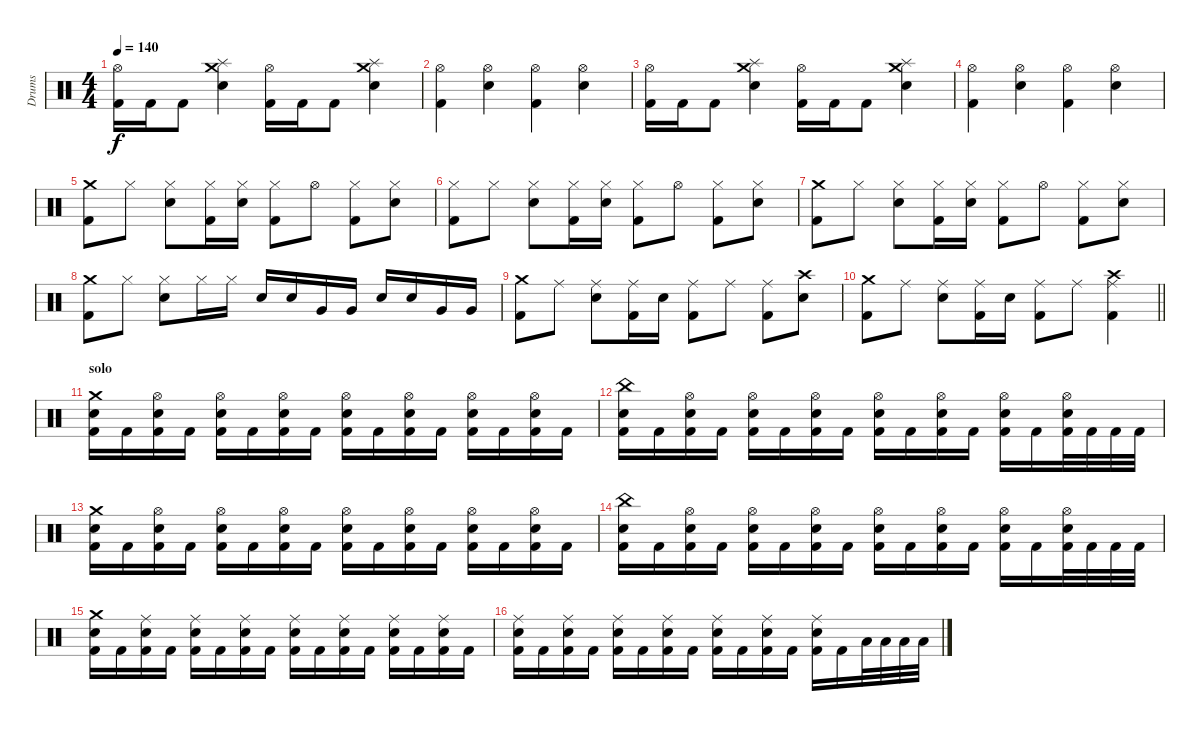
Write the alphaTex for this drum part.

\track ("Drums" "Drums") {instrument percussion}
\staff {score}
\articulation defaults
\ts (4 4)
\tempo 140
\clef neutral
\ks c
("Hi-Hat (open)" "Kick (hit) 2").16{dy f} "Kick (hit) 2".16 "Kick (hit) 2".8 ("Crash medium (hit)" "Splash (hit)" "Snare (hit) 2").4 ("Hi-Hat (open)" "Kick (hit) 2").16 "Kick (hit) 2".16 "Kick (hit) 2".8 ("Crash medium (hit)" "Splash (hit)" "Snare (hit) 2").4 |
("Hi-Hat (open)" "Kick (hit) 2").4 ("Hi-Hat (open)" "Snare (hit) 2").4 ("Hi-Hat (open)" "Kick (hit) 2").4 ("Hi-Hat (open)" "Snare (hit) 2").4 |
("Hi-Hat (open)" "Kick (hit) 2").16 "Kick (hit) 2".16 "Kick (hit) 2".8 ("Crash medium (hit)" "Splash (hit)" "Snare (hit) 2").4 ("Hi-Hat (open)" "Kick (hit) 2").16 "Kick (hit) 2".16 "Kick (hit) 2".8 ("Crash medium (hit)" "Splash (hit)" "Snare (hit) 2").4 |
("Hi-Hat (open)" "Kick (hit) 2").4 ("Hi-Hat (open)" "Snare (hit) 2").4 ("Hi-Hat (open)" "Kick (hit) 2").4 ("Hi-Hat (open)" "Snare (hit) 2").4 |
("Crash medium (hit)" "Kick (hit) 2").8 "Hi-Hat (closed)".8 ("Hi-Hat (closed)" "Snare (hit) 2").8 ("Hi-Hat (closed)" "Kick (hit) 2").16 ("Hi-Hat (closed)" "Snare (hit) 2").16 ("Hi-Hat (closed)" "Kick (hit) 2").8 "Hi-Hat (open)".8 ("Hi-Hat (closed)" "Kick (hit) 2").8 ("Hi-Hat (closed)" "Snare (hit) 2").8 |
("Hi-Hat (closed)" "Kick (hit) 2").8 "Hi-Hat (closed)".8 ("Hi-Hat (closed)" "Snare (hit) 2").8 ("Hi-Hat (closed)" "Kick (hit) 2").16 ("Hi-Hat (closed)" "Snare (hit) 2").16 ("Hi-Hat (closed)" "Kick (hit) 2").8 "Hi-Hat (open)".8 ("Hi-Hat (closed)" "Kick (hit) 2").8 ("Hi-Hat (closed)" "Snare (hit) 2").8 |
("Crash medium (hit)" "Kick (hit) 2").8 "Hi-Hat (closed)".8 ("Hi-Hat (closed)" "Snare (hit) 2").8 ("Hi-Hat (closed)" "Kick (hit) 2").16 ("Hi-Hat (closed)" "Snare (hit) 2").16 ("Hi-Hat (closed)" "Kick (hit) 2").8 "Hi-Hat (open)".8 ("Hi-Hat (closed)" "Kick (hit) 2").8 ("Hi-Hat (closed)" "Snare (hit) 2").8 |
("Crash medium (hit)" "Kick (hit) 2").8 "Hi-Hat (closed)".8 ("Hi-Hat (closed)" "Snare (hit) 2").8 "Hi-Hat (closed)".16 "Hi-Hat (closed)".16 "Snare (hit) 2".16 "Snare (hit) 2".16 "Very Low Tom (hit)".16 "Very Low Tom (hit)".16 "Snare (hit) 2".16 "Snare (hit) 2".16 "Very Low Tom (hit)".16 "Very Low Tom (hit)".16 |
("Crash medium (hit)" "Kick (hit) 2").8 "Ride (middle)".8 ("Ride (middle)" "Snare (hit) 2").8 ("Ride (middle)" "Kick (hit) 2").16 "Snare (hit) 2".16 ("Ride (middle)" "Kick (hit) 2").8 "Ride (middle)".8 ("Ride (middle)" "Kick (hit) 2").8 ("Crash high (hit)" "Snare (hit) 2").8 |
\barLineRight lightlight
("Crash medium (hit)" "Kick (hit) 2").8 "Ride (middle)".8 ("Ride (middle)" "Snare (hit) 2").8 ("Ride (middle)" "Kick (hit) 2").16 "Snare (hit) 2".16 ("Ride (middle)" "Kick (hit) 2").8 "Ride (middle)".8 ("Crash high (hit)" "Ride (middle)" "Kick (hit) 2").4 |
\section ("" "solo")
("Crash medium (hit)" "Snare (hit) 2" "Kick (hit) 2").16 "Kick (hit) 2".16 ("Hi-Hat (open)" "Snare (hit) 2" "Kick (hit) 2").16 "Kick (hit) 2".16 ("Hi-Hat (open)" "Snare (hit) 2" "Kick (hit) 2").16 "Kick (hit) 2".16 ("Hi-Hat (open)" "Snare (hit) 2" "Kick (hit) 2").16 "Kick (hit) 2".16 ("Hi-Hat (open)" "Snare (hit) 2" "Kick (hit) 2").16 "Kick (hit) 2".16 ("Hi-Hat (open)" "Snare (hit) 2" "Kick (hit) 2").16 "Kick (hit) 2".16 ("Hi-Hat (open)" "Snare (hit) 2" "Kick (hit) 2").16 "Kick (hit) 2".16 ("Hi-Hat (open)" "Snare (hit) 2" "Kick (hit) 2").16 "Kick (hit) 2".16 |
("China (hit)" "Snare (hit) 2" "Kick (hit) 2").16 "Kick (hit) 2".16 ("Hi-Hat (open)" "Snare (hit) 2" "Kick (hit) 2").16 "Kick (hit) 2".16 ("Hi-Hat (open)" "Snare (hit) 2" "Kick (hit) 2").16 "Kick (hit) 2".16 ("Hi-Hat (open)" "Snare (hit) 2" "Kick (hit) 2").16 "Kick (hit) 2".16 ("Hi-Hat (open)" "Snare (hit) 2" "Kick (hit) 2").16 "Kick (hit) 2".16 ("Hi-Hat (open)" "Snare (hit) 2" "Kick (hit) 2").16 "Kick (hit) 2".16 ("Hi-Hat (open)" "Snare (hit) 2" "Kick (hit) 2").16 "Kick (hit) 2".16 ("Hi-Hat (open)" "Snare (hit) 2" "Kick (hit) 2").32 "Kick (hit) 2".32 "Kick (hit) 2".32 "Kick (hit) 2".32 |
("Crash medium (hit)" "Snare (hit) 2" "Kick (hit) 2").16 "Kick (hit) 2".16 ("Hi-Hat (open)" "Snare (hit) 2" "Kick (hit) 2").16 "Kick (hit) 2".16 ("Hi-Hat (open)" "Snare (hit) 2" "Kick (hit) 2").16 "Kick (hit) 2".16 ("Hi-Hat (open)" "Snare (hit) 2" "Kick (hit) 2").16 "Kick (hit) 2".16 ("Hi-Hat (open)" "Snare (hit) 2" "Kick (hit) 2").16 "Kick (hit) 2".16 ("Hi-Hat (open)" "Snare (hit) 2" "Kick (hit) 2").16 "Kick (hit) 2".16 ("Hi-Hat (open)" "Snare (hit) 2" "Kick (hit) 2").16 "Kick (hit) 2".16 ("Hi-Hat (open)" "Snare (hit) 2" "Kick (hit) 2").16 "Kick (hit) 2".16 |
("China (hit)" "Snare (hit) 2" "Kick (hit) 2").16 "Kick (hit) 2".16 ("Hi-Hat (open)" "Snare (hit) 2" "Kick (hit) 2").16 "Kick (hit) 2".16 ("Hi-Hat (open)" "Snare (hit) 2" "Kick (hit) 2").16 "Kick (hit) 2".16 ("Hi-Hat (open)" "Snare (hit) 2" "Kick (hit) 2").16 "Kick (hit) 2".16 ("Hi-Hat (open)" "Snare (hit) 2" "Kick (hit) 2").16 "Kick (hit) 2".16 ("Hi-Hat (open)" "Snare (hit) 2" "Kick (hit) 2").16 "Kick (hit) 2".16 ("Hi-Hat (open)" "Snare (hit) 2" "Kick (hit) 2").16 "Kick (hit) 2".16 ("Hi-Hat (open)" "Snare (hit) 2" "Kick (hit) 2").32 "Kick (hit) 2".32 "Kick (hit) 2".32 "Kick (hit) 2".32 |
("Crash medium (hit)" "Snare (hit) 2" "Kick (hit) 2").16 "Kick (hit) 2".16 ("Ride (middle)" "Snare (hit) 2" "Kick (hit) 2").16 "Kick (hit) 2".16 ("Ride (middle)" "Snare (hit) 2" "Kick (hit) 2").16 "Kick (hit) 2".16 ("Ride (middle)" "Snare (hit) 2" "Kick (hit) 2").16 "Kick (hit) 2".16 ("Ride (middle)" "Snare (hit) 2" "Kick (hit) 2").16 "Kick (hit) 2".16 ("Ride (middle)" "Snare (hit) 2" "Kick (hit) 2").16 "Kick (hit) 2".16 ("Ride (middle)" "Snare (hit) 2" "Kick (hit) 2").16 "Kick (hit) 2".16 ("Ride (middle)" "Snare (hit) 2" "Kick (hit) 2").16 "Kick (hit) 2".16 |
("Ride (middle)" "Snare (hit) 2" "Kick (hit) 2").16 "Kick (hit) 2".16 ("Ride (middle)" "Snare (hit) 2" "Kick (hit) 2").16 "Kick (hit) 2".16 ("Ride (middle)" "Snare (hit) 2" "Kick (hit) 2").16 "Kick (hit) 2".16 ("Ride (middle)" "Snare (hit) 2" "Kick (hit) 2").16 "Kick (hit) 2".16 ("Ride (middle)" "Snare (hit) 2" "Kick (hit) 2").16 "Kick (hit) 2".16 ("Ride (middle)" "Snare (hit) 2" "Kick (hit) 2").16 "Kick (hit) 2".16 ("Ride (middle)" "Snare (hit) 2" "Kick (hit) 2").16 "Kick (hit) 2".16 "Low Tom (hit)".32 "Low Tom (hit)".32 "Low Tom (hit)".32 "Low Tom (hit)".32
